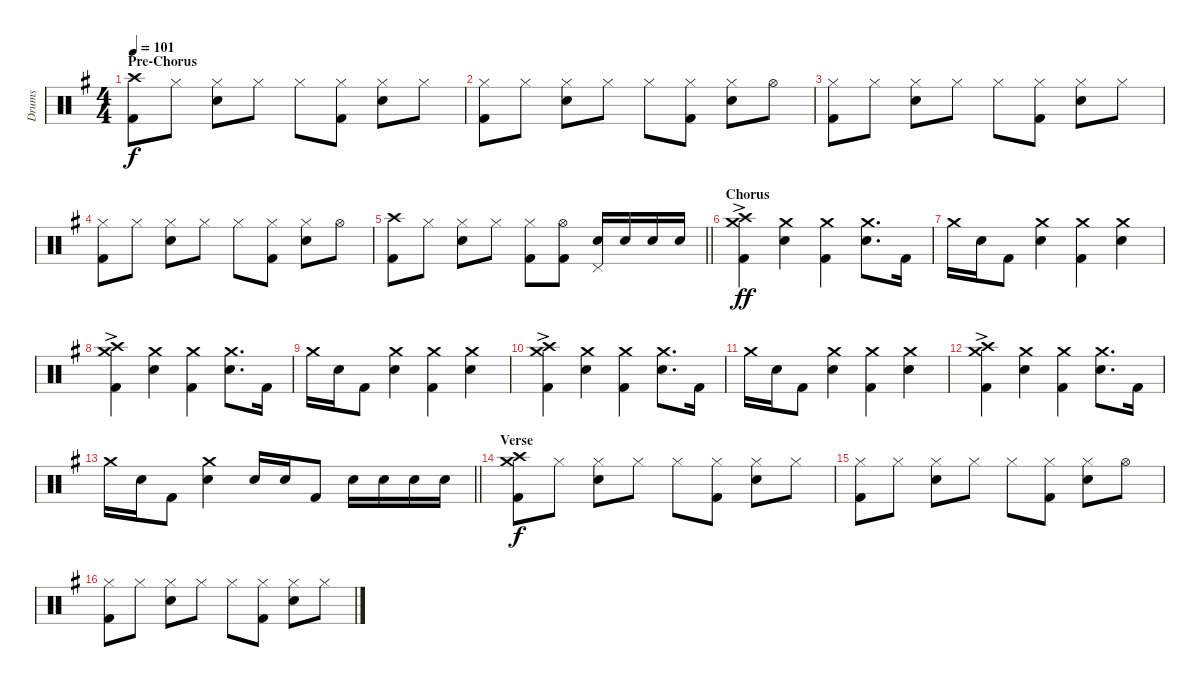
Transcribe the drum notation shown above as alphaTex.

\track ("Drums" "Drums") {instrument percussion}
\staff {score}
\articulation defaults
\ts (4 4)
\section ("" "Pre-Chorus")
\tempo 101
\clef neutral
\ks eminor
("Crash high (hit)" "Kick (hit) 2").8{dy f} "Hi-Hat (closed)".8 ("Hi-Hat (closed)" "Snare (hit) 2").8 "Hi-Hat (closed)".8 "Hi-Hat (closed)".8 ("Hi-Hat (closed)" "Kick (hit) 2").8 ("Hi-Hat (closed)" "Snare (hit) 2").8 "Hi-Hat (closed)".8 |
("Hi-Hat (closed)" "Kick (hit) 2").8 "Hi-Hat (closed)".8 ("Hi-Hat (closed)" "Snare (hit) 2").8 "Hi-Hat (closed)".8 "Hi-Hat (closed)".8 ("Hi-Hat (closed)" "Kick (hit) 2").8 ("Hi-Hat (closed)" "Snare (hit) 2").8 "Hi-Hat (open)".8 |
("Hi-Hat (closed)" "Kick (hit) 2").8 "Hi-Hat (closed)".8 ("Hi-Hat (closed)" "Snare (hit) 2").8 "Hi-Hat (closed)".8 "Hi-Hat (closed)".8 ("Hi-Hat (closed)" "Kick (hit) 2").8 ("Hi-Hat (closed)" "Snare (hit) 2").8 "Hi-Hat (closed)".8 |
("Hi-Hat (closed)" "Kick (hit) 2").8 "Hi-Hat (closed)".8 ("Hi-Hat (closed)" "Snare (hit) 2").8 "Hi-Hat (closed)".8 "Hi-Hat (closed)".8 ("Hi-Hat (closed)" "Kick (hit) 2").8 ("Hi-Hat (closed)" "Snare (hit) 2").8 "Hi-Hat (open)".8 |
\barLineRight lightlight
("Crash high (hit)" "Kick (hit) 2").8 "Hi-Hat (closed)".8 ("Hi-Hat (closed)" "Snare (hit) 2").8 "Hi-Hat (closed)".8 ("Hi-Hat (closed)" "Kick (hit) 2").8 ("Hi-Hat (open)" "Kick (hit) 2").8 ("Snare (hit) 2" "Pedal Hi-Hat (hit)").16 "Snare (hit) 2".16 "Snare (hit) 2".16 "Snare (hit) 2".16 |
\section ("" "Chorus")
("Crash medium (hit)"{ac} "Crash high (hit)"{ac} "Kick (hit) 2").4{dy ff} ("Crash medium (hit)" "Snare (hit) 2").4 ("Crash medium (hit)" "Kick (hit) 2").4 ("Crash medium (hit)" "Snare (hit) 2").8{d} "Kick (hit) 2".16 |
"Crash medium (hit)".16 "Snare (hit) 2".16 "Kick (hit) 2".8 ("Crash medium (hit)" "Snare (hit) 2").4 ("Crash medium (hit)" "Kick (hit) 2").4 ("Crash medium (hit)" "Snare (hit) 2").4 |
("Crash medium (hit)"{ac} "Crash high (hit)"{ac} "Kick (hit) 2").4 ("Crash medium (hit)" "Snare (hit) 2").4 ("Crash medium (hit)" "Kick (hit) 2").4 ("Crash medium (hit)" "Snare (hit) 2").8{d} "Kick (hit) 2".16 |
"Crash medium (hit)".16 "Snare (hit) 2".16 "Kick (hit) 2".8 ("Crash medium (hit)" "Snare (hit) 2").4 ("Crash medium (hit)" "Kick (hit) 2").4 ("Crash medium (hit)" "Snare (hit) 2").4 |
("Crash medium (hit)"{ac} "Crash high (hit)"{ac} "Kick (hit) 2").4 ("Crash medium (hit)" "Snare (hit) 2").4 ("Crash medium (hit)" "Kick (hit) 2").4 ("Crash medium (hit)" "Snare (hit) 2").8{d} "Kick (hit) 2".16 |
"Crash medium (hit)".16 "Snare (hit) 2".16 "Kick (hit) 2".8 ("Crash medium (hit)" "Snare (hit) 2").4 ("Crash medium (hit)" "Kick (hit) 2").4 ("Crash medium (hit)" "Snare (hit) 2").4 |
("Crash medium (hit)"{ac} "Crash high (hit)"{ac} "Kick (hit) 2").4 ("Crash medium (hit)" "Snare (hit) 2").4 ("Crash medium (hit)" "Kick (hit) 2").4 ("Crash medium (hit)" "Snare (hit) 2").8{d} "Kick (hit) 2".16 |
\barLineRight lightlight "Crash medium (hit)".16 "Snare (hit) 2".16 "Kick (hit) 2".8
("Crash medium (hit)" "Snare (hit) 2").4 "Snare (hit) 2".16 "Snare (hit) 2".16 "Kick (hit) 2".8 "Snare (hit) 2".16 "Snare (hit) 2".16 "Snare (hit) 2".16 "Snare (hit) 2".16 |
\section ("" "Verse")
("Crash high (hit)" "Crash medium (hit)" "Kick (hit) 2").8{dy f} "Hi-Hat (closed)".8 ("Hi-Hat (closed)" "Snare (hit) 2").8 "Hi-Hat (closed)".8 "Hi-Hat (closed)".8 ("Hi-Hat (closed)" "Kick (hit) 2").8 ("Hi-Hat (closed)" "Snare (hit) 2").8 "Hi-Hat (closed)".8 |
("Hi-Hat (closed)" "Kick (hit) 2").8 "Hi-Hat (closed)".8 ("Hi-Hat (closed)" "Snare (hit) 2").8 "Hi-Hat (closed)".8 "Hi-Hat (closed)".8 ("Hi-Hat (closed)" "Kick (hit) 2").8 ("Hi-Hat (closed)" "Snare (hit) 2").8 "Hi-Hat (open)".8 |
("Hi-Hat (closed)" "Kick (hit) 2").8 "Hi-Hat (closed)".8 ("Hi-Hat (closed)" "Snare (hit) 2").8 "Hi-Hat (closed)".8 "Hi-Hat (closed)".8 ("Hi-Hat (closed)" "Kick (hit) 2").8 ("Hi-Hat (closed)" "Snare (hit) 2").8 "Hi-Hat (closed)".8
